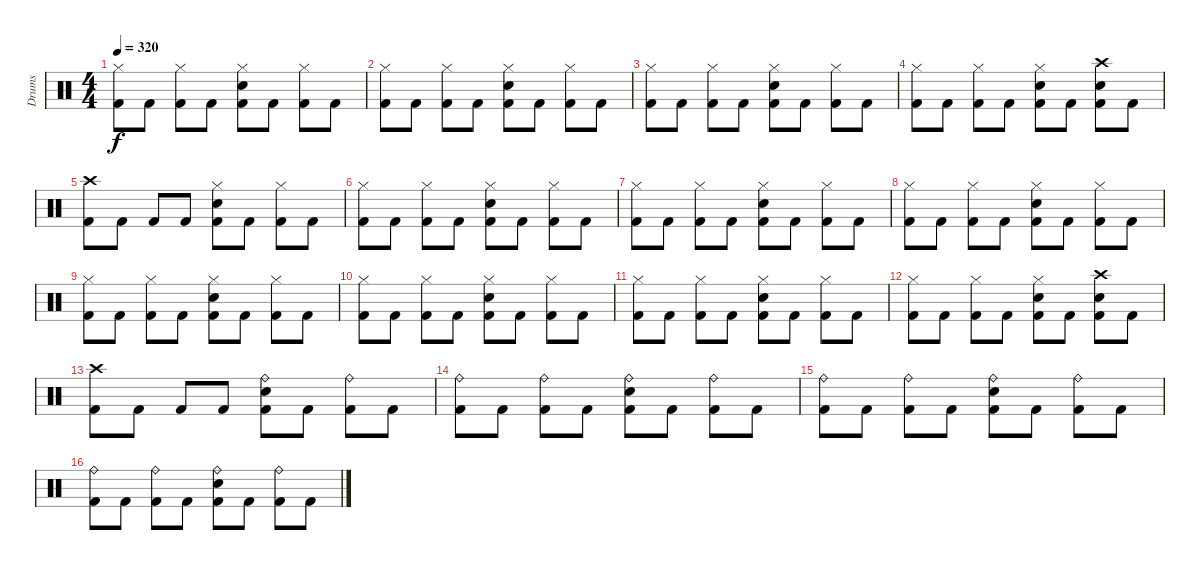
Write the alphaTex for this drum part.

\track ("Drums" "Drums") {instrument percussion}
\staff {score}
\articulation defaults
\ts (4 4)
\tempo 320
\clef neutral
\ks c
("Hi-Hat (closed)" "Kick (hit) 2").8{dy f} "Kick (hit) 2".8 ("Kick (hit) 2" "Hi-Hat (closed)").8 "Kick (hit) 2".8 ("Hi-Hat (closed)" "Snare (hit) 2" "Kick (hit) 2").8 "Kick (hit) 2".8 ("Kick (hit) 2" "Hi-Hat (closed)").8 "Kick (hit) 2".8 |
("Hi-Hat (closed)" "Kick (hit) 2").8 "Kick (hit) 2".8 ("Kick (hit) 2" "Hi-Hat (closed)").8 "Kick (hit) 2".8 ("Hi-Hat (closed)" "Snare (hit) 2" "Kick (hit) 2").8 "Kick (hit) 2".8 ("Hi-Hat (closed)" "Kick (hit) 2").8 "Kick (hit) 2".8 |
("Hi-Hat (closed)" "Kick (hit) 2").8 "Kick (hit) 2".8 ("Kick (hit) 2" "Hi-Hat (closed)").8 "Kick (hit) 2".8 ("Hi-Hat (closed)" "Snare (hit) 2" "Kick (hit) 2").8 "Kick (hit) 2".8 ("Kick (hit) 2" "Hi-Hat (closed)").8 "Kick (hit) 2".8 |
("Kick (hit) 2" "Hi-Hat (closed)").8 "Kick (hit) 2".8 ("Kick (hit) 2" "Hi-Hat (closed)").8 "Kick (hit) 2".8 ("Kick (hit) 2" "Hi-Hat (closed)" "Snare (hit) 2").8 "Kick (hit) 2".8 ("Snare (hit) 2" "Crash high (hit)" "Kick (hit) 2").8 "Kick (hit) 2".8 |
("Kick (hit) 2" "Crash high (hit)").8 "Kick (hit) 2".8 "Kick (hit) 2".8 "Kick (hit) 2".8 ("Kick (hit) 2" "Snare (hit) 2" "Hi-Hat (closed)").8 "Kick (hit) 2".8 ("Kick (hit) 2" "Hi-Hat (closed)").8 "Kick (hit) 2".8 |
("Kick (hit) 2" "Hi-Hat (closed)").8 "Kick (hit) 2".8 ("Kick (hit) 2" "Hi-Hat (closed)").8 "Kick (hit) 2".8 ("Kick (hit) 2" "Snare (hit) 2" "Hi-Hat (closed)").8 "Kick (hit) 2".8 ("Hi-Hat (closed)" "Kick (hit) 2").8 "Kick (hit) 2".8 |
("Kick (hit) 2" "Hi-Hat (closed)").8 "Kick (hit) 2".8 ("Kick (hit) 2" "Hi-Hat (closed)").8 "Kick (hit) 2".8 ("Kick (hit) 2" "Hi-Hat (closed)" "Snare (hit) 2").8 "Kick (hit) 2".8 ("Hi-Hat (closed)" "Kick (hit) 2").8 "Kick (hit) 2".8 |
("Kick (hit) 2" "Hi-Hat (closed)").8 "Kick (hit) 2".8 ("Kick (hit) 2" "Hi-Hat (closed)").8 "Kick (hit) 2".8 ("Kick (hit) 2" "Hi-Hat (closed)" "Snare (hit) 2").8 "Kick (hit) 2".8 ("Kick (hit) 2" "Hi-Hat (closed)").8 "Kick (hit) 2".8 |
("Hi-Hat (closed)" "Kick (hit) 2").8 "Kick (hit) 2".8 ("Kick (hit) 2" "Hi-Hat (closed)").8 "Kick (hit) 2".8 ("Hi-Hat (closed)" "Snare (hit) 2" "Kick (hit) 2").8 "Kick (hit) 2".8 ("Kick (hit) 2" "Hi-Hat (closed)").8 "Kick (hit) 2".8 |
("Hi-Hat (closed)" "Kick (hit) 2").8 "Kick (hit) 2".8 ("Kick (hit) 2" "Hi-Hat (closed)").8 "Kick (hit) 2".8 ("Hi-Hat (closed)" "Snare (hit) 2" "Kick (hit) 2").8 "Kick (hit) 2".8 ("Hi-Hat (closed)" "Kick (hit) 2").8 "Kick (hit) 2".8 |
("Hi-Hat (closed)" "Kick (hit) 2").8 "Kick (hit) 2".8 ("Kick (hit) 2" "Hi-Hat (closed)").8 "Kick (hit) 2".8 ("Hi-Hat (closed)" "Snare (hit) 2" "Kick (hit) 2").8 "Kick (hit) 2".8 ("Kick (hit) 2" "Hi-Hat (closed)").8 "Kick (hit) 2".8 |
("Hi-Hat (closed)" "Kick (hit) 2").8 "Kick (hit) 2".8 ("Kick (hit) 2" "Hi-Hat (closed)").8 "Kick (hit) 2".8 ("Hi-Hat (closed)" "Snare (hit) 2" "Kick (hit) 2").8 "Kick (hit) 2".8 ("Kick (hit) 2" "Snare (hit) 2" "Crash high (hit)").8 "Kick (hit) 2".8 |
("Kick (hit) 2" "Crash high (hit)").8 "Kick (hit) 2".8 "Kick (hit) 2".8 "Kick (hit) 2".8 ("Ride (bell)" "Snare (hit) 2" "Kick (hit) 2").8 "Kick (hit) 2".8 ("Kick (hit) 2" "Ride (bell)").8 "Kick (hit) 2".8 |
("Kick (hit) 2" "Ride (bell)").8 "Kick (hit) 2".8 ("Ride (bell)" "Kick (hit) 2").8 "Kick (hit) 2".8 ("Kick (hit) 2" "Ride (bell)" "Snare (hit) 2").8 "Kick (hit) 2".8 ("Ride (bell)" "Kick (hit) 2").8 "Kick (hit) 2".8 |
("Kick (hit) 2" "Ride (bell)").8 "Kick (hit) 2".8 ("Ride (bell)" "Kick (hit) 2").8 "Kick (hit) 2".8 ("Snare (hit) 2" "Ride (bell)" "Kick (hit) 2").8 "Kick (hit) 2".8 ("Ride (bell)" "Kick (hit) 2").8 "Kick (hit) 2".8 |
("Kick (hit) 2" "Ride (bell)").8 "Kick (hit) 2".8 ("Ride (bell)" "Kick (hit) 2").8 "Kick (hit) 2".8 ("Snare (hit) 2" "Ride (bell)" "Kick (hit) 2").8 "Kick (hit) 2".8 ("Ride (bell)" "Kick (hit) 2").8 "Kick (hit) 2".8
